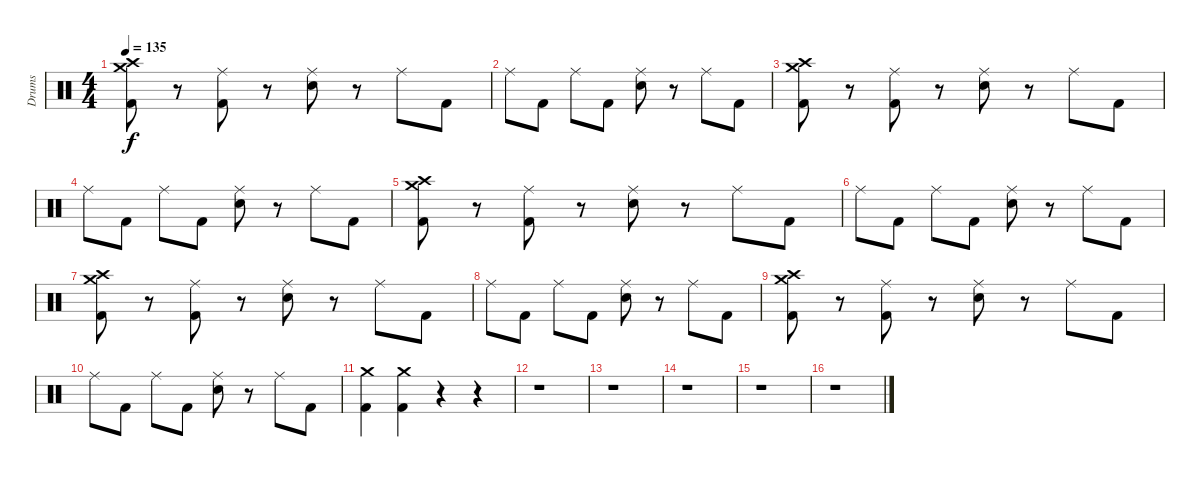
\track ("Drums" "Drums") {instrument percussion}
\staff {score}
\articulation defaults
\ts (4 4)
\tempo 135
\clef neutral
\ks c
("Crash medium (hit)" "Crash high (hit)" "Kick (hit) 2").8{dy f} r.8 ("Ride (middle)" "Kick (hit) 2").8 r.8 ("Ride (middle)" "Snare (hit) 2").8 r.8 "Ride (middle)".8 "Kick (hit) 2".8 |
"Ride (middle)".8 "Kick (hit) 2".8 "Ride (middle)".8 "Kick (hit) 2".8 ("Ride (middle)" "Snare (hit) 2").8 r.8 "Ride (middle)".8 "Kick (hit) 2".8 |
("Crash medium (hit)" "Crash high (hit)" "Kick (hit) 2").8 r.8 ("Ride (middle)" "Kick (hit) 2").8 r.8 ("Ride (middle)" "Snare (hit) 2").8 r.8 "Ride (middle)".8 "Kick (hit) 2".8 |
"Ride (middle)".8 "Kick (hit) 2".8 "Ride (middle)".8 "Kick (hit) 2".8 ("Ride (middle)" "Snare (hit) 2").8 r.8 "Ride (middle)".8 "Kick (hit) 2".8 |
("Crash medium (hit)" "Crash high (hit)" "Kick (hit) 2").8 r.8 ("Ride (middle)" "Kick (hit) 2").8 r.8 ("Ride (middle)" "Snare (hit) 2").8 r.8 "Ride (middle)".8 "Kick (hit) 2".8 |
"Ride (middle)".8 "Kick (hit) 2".8 "Ride (middle)".8 "Kick (hit) 2".8 ("Ride (middle)" "Snare (hit) 2").8 r.8 "Ride (middle)".8 "Kick (hit) 2".8 |
("Crash medium (hit)" "Crash high (hit)" "Kick (hit) 2").8 r.8 ("Ride (middle)" "Kick (hit) 2").8 r.8 ("Ride (middle)" "Snare (hit) 2").8 r.8 "Ride (middle)".8 "Kick (hit) 2".8 |
"Ride (middle)".8 "Kick (hit) 2".8 "Ride (middle)".8 "Kick (hit) 2".8 ("Ride (middle)" "Snare (hit) 2").8 r.8 "Ride (middle)".8 "Kick (hit) 2".8 |
("Crash medium (hit)" "Crash high (hit)" "Kick (hit) 2").8 r.8 ("Ride (middle)" "Kick (hit) 2").8 r.8 ("Ride (middle)" "Snare (hit) 2").8 r.8 "Ride (middle)".8 "Kick (hit) 2".8 |
"Ride (middle)".8 "Kick (hit) 2".8 "Ride (middle)".8 "Kick (hit) 2".8 ("Ride (middle)" "Snare (hit) 2").8 r.8 "Ride (middle)".8 "Kick (hit) 2".8 |
("Crash medium (hit)" "Kick (hit) 2").4 ("Crash medium (hit)" "Kick (hit) 2").4 r.4 r.4 |
r.1 |
r.1 |
r.1 |
r.1 |
r.1
